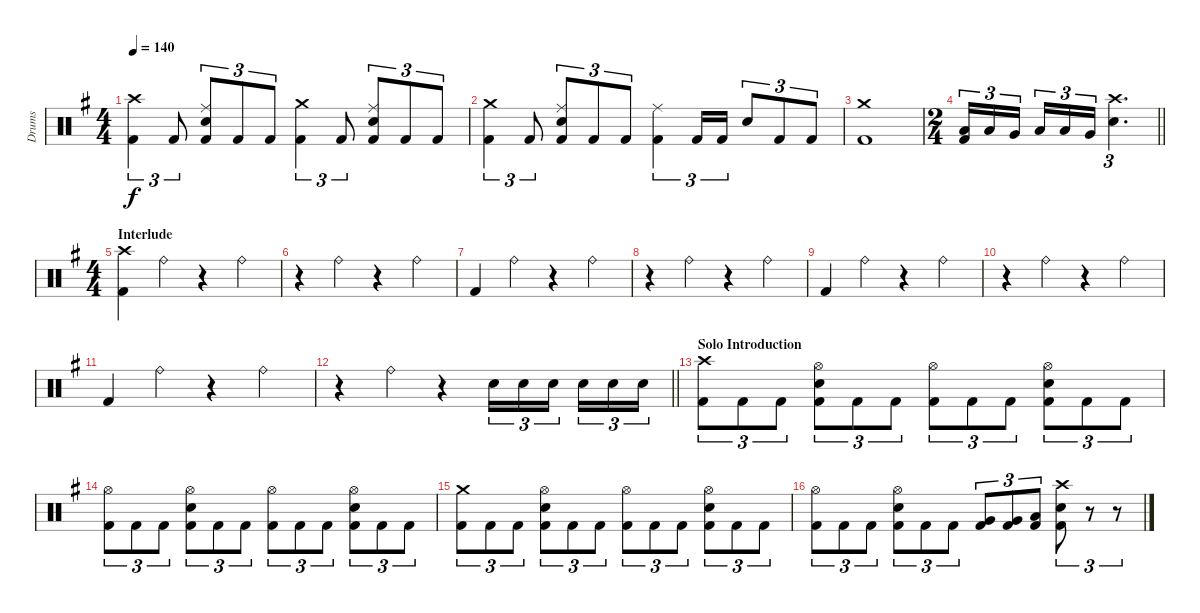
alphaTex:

\track ("Drums" "Drums") {instrument percussion}
\staff {score}
\articulation defaults
\ts (4 4)
\tempo 140
\clef neutral
\ks eminor
("Crash high (hit)" "Kick (hit) 2").4{tu (3 2) dy f} "Kick (hit) 2".8{tu (3 2)} ("Ride (middle)" "Electric Snare (hit)" "Kick (hit) 2").8{tu (3 2)} "Kick (hit) 2".8{tu (3 2)} "Kick (hit) 2".8{tu (3 2)} ("Crash medium (hit)" "Kick (hit) 2").4{tu (3 2)} "Kick (hit) 2".8{tu (3 2)} ("Ride (middle)" "Electric Snare (hit)" "Kick (hit) 2").8{tu (3 2)} "Kick (hit) 2".8{tu (3 2)} "Kick (hit) 2".8{tu (3 2)} |
("Crash medium (hit)" "Kick (hit) 2").4{tu (3 2)} "Kick (hit) 2".8{tu (3 2)} ("Ride (middle)" "Electric Snare (hit)" "Kick (hit) 2").8{tu (3 2)} "Kick (hit) 2".8{tu (3 2)} "Kick (hit) 2".8{tu (3 2)} ("Ride (middle)" "Kick (hit) 2").4{tu (3 2)} "Kick (hit) 2".16{tu (3 2)} "Kick (hit) 2".16{tu (3 2)} "Electric Snare (hit)".8{tu (3 2)} "Kick (hit) 2".8{tu (3 2)} "Kick (hit) 2".8{tu (3 2)} |
("Crash medium (hit)" "Kick (hit) 2").1 |
\ts (2 4)
\barLineRight lightlight
("Low Tom (hit)" "Kick (hit) 2").16{tu (3 2)} "Low Tom (hit)".16{tu (3 2)} "Very Low Tom (hit)".16{tu (3 2) beam splitsecondary} "Low Tom (hit)".16{tu (3 2)} "Low Tom (hit)".16{tu (3 2)} "Very Low Tom (hit)".16{tu (3 2)} ("Crash high (hit)" "Electric Snare (hit)").4{d tu (3 2)} |
\ts (4 4)
\section ("" "Interlude")
("Crash high (hit)" "Kick (hit) 2").4 "Ride (bell)".4 r.4 "Ride (bell)".4 |
r.4 "Ride (bell)".4 r.4 "Ride (bell)".4 |
"Kick (hit) 2".4 "Ride (bell)".4 r.4 "Ride (bell)".4 |
r.4 "Ride (bell)".4 r.4 "Ride (bell)".4 |
"Kick (hit) 2".4 "Ride (bell)".4 r.4 "Ride (bell)".4 |
r.4 "Ride (bell)".4 r.4 "Ride (bell)".4 |
"Kick (hit) 2".4 "Ride (bell)".4 r.4 "Ride (bell)".4 |
\barLineRight lightlight
r.4 "Ride (bell)".4 r.4 "Electric Snare (hit)".16{tu (3 2)} "Electric Snare (hit)".16{tu (3 2)} "Electric Snare (hit)".16{tu (3 2) beam splitsecondary} "Electric Snare (hit)".16{tu (3 2)} "Electric Snare (hit)".16{tu (3 2)} "Electric Snare (hit)".16{tu (3 2)} |
\section ("" "Solo Introduction")
("Crash high (hit)" "Kick (hit) 2").8{tu (3 2)} "Kick (hit) 2".8{tu (3 2)} "Kick (hit) 2".8{tu (3 2)} ("Hi-Hat (open)" "Electric Snare (hit)" "Kick (hit) 2").8{tu (3 2)} "Kick (hit) 2".8{tu (3 2)} "Kick (hit) 2".8{tu (3 2)} ("Hi-Hat (open)" "Kick (hit) 2").8{tu (3 2)} "Kick (hit) 2".8{tu (3 2)} "Kick (hit) 2".8{tu (3 2)} ("Hi-Hat (open)" "Electric Snare (hit)" "Kick (hit) 2").8{tu (3 2)} "Kick (hit) 2".8{tu (3 2)} "Kick (hit) 2".8{tu (3 2)} |
("Hi-Hat (open)" "Kick (hit) 2").8{tu (3 2)} "Kick (hit) 2".8{tu (3 2)} "Kick (hit) 2".8{tu (3 2)} ("Hi-Hat (open)" "Electric Snare (hit)" "Kick (hit) 2").8{tu (3 2)} "Kick (hit) 2".8{tu (3 2)} "Kick (hit) 2".8{tu (3 2)} ("Hi-Hat (open)" "Kick (hit) 2").8{tu (3 2)} "Kick (hit) 2".8{tu (3 2)} "Kick (hit) 2".8{tu (3 2)} ("Hi-Hat (open)" "Electric Snare (hit)" "Kick (hit) 2").8{tu (3 2)} "Kick (hit) 2".8{tu (3 2)} "Kick (hit) 2".8{tu (3 2)} |
("Crash medium (hit)" "Kick (hit) 2").8{tu (3 2)} "Kick (hit) 2".8{tu (3 2)} "Kick (hit) 2".8{tu (3 2)} ("Hi-Hat (open)" "Electric Snare (hit)" "Kick (hit) 2").8{tu (3 2)} "Kick (hit) 2".8{tu (3 2)} "Kick (hit) 2".8{tu (3 2)} ("Hi-Hat (open)" "Kick (hit) 2").8{tu (3 2)} "Kick (hit) 2".8{tu (3 2)} "Kick (hit) 2".8{tu (3 2)} ("Hi-Hat (open)" "Electric Snare (hit)" "Kick (hit) 2").8{tu (3 2)} "Kick (hit) 2".8{tu (3 2)} "Kick (hit) 2".8{tu (3 2)} |
("Hi-Hat (open)" "Kick (hit) 2").8{tu (3 2)} "Kick (hit) 2".8{tu (3 2)} "Kick (hit) 2".8{tu (3 2)} ("Hi-Hat (open)" "Electric Snare (hit)" "Kick (hit) 2").8{tu (3 2)} "Kick (hit) 2".8{tu (3 2)} "Kick (hit) 2".8{tu (3 2)} ("Very Low Tom (hit)" "Kick (hit) 2").8{tu (3 2)} ("Very Low Tom (hit)" "Kick (hit) 2").8{tu (3 2)} ("Low Tom (hit)" "Kick (hit) 2").8{tu (3 2)} ("Crash high (hit)" "Electric Snare (hit)" "Kick (hit) 2").8{tu (3 2)} r.8{tu (3 2)} r.8{tu (3 2)}
